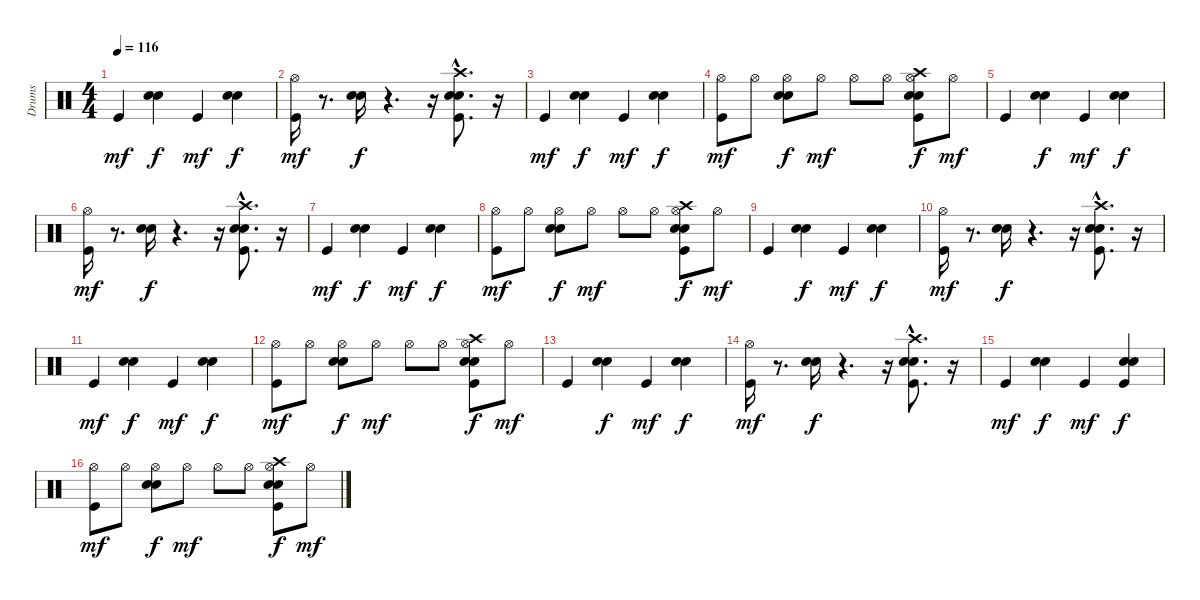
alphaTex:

\track ("Drums" "Drums") {instrument percussion}
\staff {score}
\articulation defaults
\ts (4 4)
\tempo 116
\clef neutral
\ks c "Kick (hit)".4{dy mf}
("Electric Snare (hit)" "Snare (hit) 2").4{dy f} "Kick (hit)".4{dy mf} ("Electric Snare (hit)" "Snare (hit) 2").4{dy f} |
("Hi-Hat (open)" "Kick (hit)").16{dy mf} r.8{d} ("Electric Snare (hit)" "Snare (hit) 2").16{dy f} r.4{d} r.16 ("Crash high (hit)"{hac} "Electric Snare (hit)" "Snare (hit) 2" "Kick (hit)").8{d} r.16 |
"Kick (hit)".4{dy mf} ("Electric Snare (hit)" "Snare (hit) 2").4{dy f} "Kick (hit)".4{dy mf} ("Electric Snare (hit)" "Snare (hit) 2").4{dy f} |
("Hi-Hat (open)" "Kick (hit)").8{dy mf} "Hi-Hat (open)".8 ("Hi-Hat (open)" "Electric Snare (hit)" "Snare (hit) 2").8{dy f} "Hi-Hat (open)".8{dy mf} "Hi-Hat (open)".8 "Hi-Hat (open)".8 ("Hi-Hat (open)" "Crash high (hit)" "Electric Snare (hit)" "Snare (hit) 2" "Kick (hit)").8{dy f} "Hi-Hat (open)".8{dy mf} |
"Kick (hit)".4 ("Electric Snare (hit)" "Snare (hit) 2").4{dy f} "Kick (hit)".4{dy mf} ("Electric Snare (hit)" "Snare (hit) 2").4{dy f} |
("Hi-Hat (open)" "Kick (hit)").16{dy mf} r.8{d} ("Electric Snare (hit)" "Snare (hit) 2").16{dy f} r.4{d} r.16 ("Crash high (hit)"{hac} "Electric Snare (hit)" "Snare (hit) 2" "Kick (hit)").8{d} r.16 |
"Kick (hit)".4{dy mf} ("Electric Snare (hit)" "Snare (hit) 2").4{dy f} "Kick (hit)".4{dy mf} ("Electric Snare (hit)" "Snare (hit) 2").4{dy f} |
("Hi-Hat (open)" "Kick (hit)").8{dy mf} "Hi-Hat (open)".8 ("Hi-Hat (open)" "Electric Snare (hit)" "Snare (hit) 2").8{dy f} "Hi-Hat (open)".8{dy mf} "Hi-Hat (open)".8 "Hi-Hat (open)".8 ("Hi-Hat (open)" "Crash high (hit)" "Electric Snare (hit)" "Snare (hit) 2" "Kick (hit)").8{dy f} "Hi-Hat (open)".8{dy mf} |
"Kick (hit)".4 ("Electric Snare (hit)" "Snare (hit) 2").4{dy f} "Kick (hit)".4{dy mf} ("Electric Snare (hit)" "Snare (hit) 2").4{dy f} |
("Hi-Hat (open)" "Kick (hit)").16{dy mf} r.8{d} ("Electric Snare (hit)" "Snare (hit) 2").16{dy f} r.4{d} r.16 ("Crash high (hit)"{hac} "Electric Snare (hit)" "Snare (hit) 2" "Kick (hit)").8{d} r.16 |
"Kick (hit)".4{dy mf} ("Electric Snare (hit)" "Snare (hit) 2").4{dy f} "Kick (hit)".4{dy mf} ("Electric Snare (hit)" "Snare (hit) 2").4{dy f} |
("Hi-Hat (open)" "Kick (hit)").8{dy mf} "Hi-Hat (open)".8 ("Hi-Hat (open)" "Electric Snare (hit)" "Snare (hit) 2").8{dy f} "Hi-Hat (open)".8{dy mf} "Hi-Hat (open)".8 "Hi-Hat (open)".8 ("Hi-Hat (open)" "Crash high (hit)" "Electric Snare (hit)" "Snare (hit) 2" "Kick (hit)").8{dy f} "Hi-Hat (open)".8{dy mf} |
"Kick (hit)".4 ("Electric Snare (hit)" "Snare (hit) 2").4{dy f} "Kick (hit)".4{dy mf} ("Electric Snare (hit)" "Snare (hit) 2").4{dy f} |
("Hi-Hat (open)" "Kick (hit)").16{dy mf} r.8{d} ("Electric Snare (hit)" "Snare (hit) 2").16{dy f} r.4{d} r.16 ("Crash high (hit)"{hac} "Electric Snare (hit)" "Snare (hit) 2" "Kick (hit)").8{d} r.16 |
"Kick (hit)".4{dy mf} ("Electric Snare (hit)" "Snare (hit) 2").4{dy f} "Kick (hit)".4{dy mf} ("Electric Snare (hit)" "Snare (hit) 2" "Kick (hit)").4{dy f} |
("Hi-Hat (open)" "Kick (hit)").8{dy mf} "Hi-Hat (open)".8 ("Hi-Hat (open)" "Electric Snare (hit)" "Snare (hit) 2").8{dy f} "Hi-Hat (open)".8{dy mf} "Hi-Hat (open)".8 "Hi-Hat (open)".8 ("Hi-Hat (open)" "Crash high (hit)" "Electric Snare (hit)" "Snare (hit) 2" "Kick (hit)").8{dy f} "Hi-Hat (open)".8{dy mf}
